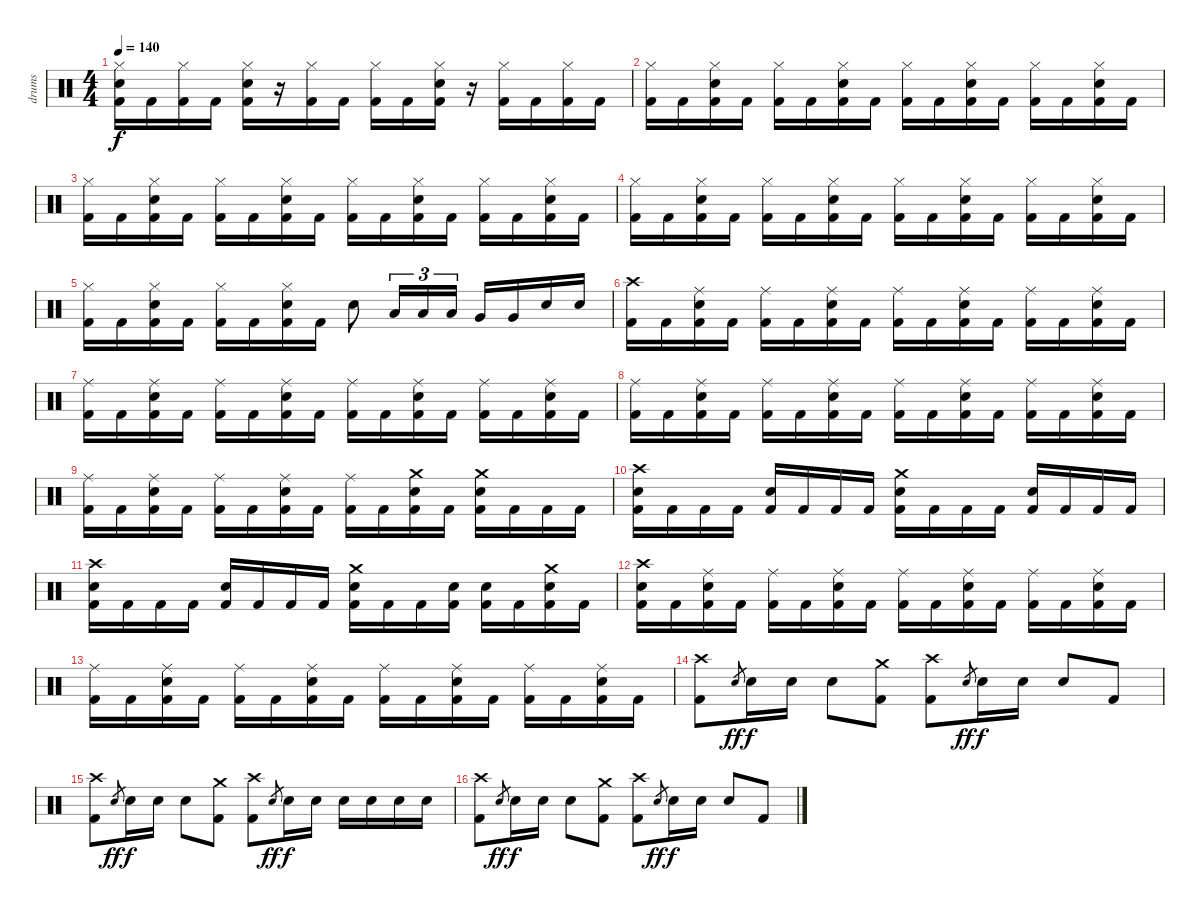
\track ("drums" "drums") {instrument percussion}
\staff {score}
\articulation defaults
\ts (4 4)
\tempo 140
\clef neutral
\ks c
("Hi-Hat (closed)" "Electric Snare (hit)" "Kick (hit) 2").16{dy f} "Kick (hit) 2".16 ("Hi-Hat (closed)" "Kick (hit) 2").16 "Kick (hit) 2".16 ("Hi-Hat (closed)" "Electric Snare (hit)" "Kick (hit) 2").16 r.16 ("Hi-Hat (closed)" "Kick (hit) 2").16 "Kick (hit) 2".16 ("Hi-Hat (closed)" "Kick (hit) 2").16 "Kick (hit) 2".16 ("Hi-Hat (closed)" "Electric Snare (hit)" "Kick (hit) 2").16 r.16 ("Hi-Hat (closed)" "Kick (hit) 2").16 "Kick (hit) 2".16 ("Hi-Hat (closed)" "Kick (hit) 2").16 "Kick (hit) 2".16 |
("Hi-Hat (closed)" "Kick (hit) 2").16 "Kick (hit) 2".16 ("Hi-Hat (closed)" "Electric Snare (hit)" "Kick (hit) 2").16 "Kick (hit) 2".16 ("Hi-Hat (closed)" "Kick (hit) 2").16 "Kick (hit) 2".16 ("Hi-Hat (closed)" "Electric Snare (hit)" "Kick (hit) 2").16 "Kick (hit) 2".16 ("Hi-Hat (closed)" "Kick (hit) 2").16 "Kick (hit) 2".16 ("Hi-Hat (closed)" "Electric Snare (hit)" "Kick (hit) 2").16 "Kick (hit) 2".16 ("Hi-Hat (closed)" "Kick (hit) 2").16 "Kick (hit) 2".16 ("Hi-Hat (closed)" "Electric Snare (hit)" "Kick (hit) 2").16 "Kick (hit) 2".16 |
("Hi-Hat (closed)" "Kick (hit) 2").16 "Kick (hit) 2".16 ("Hi-Hat (closed)" "Electric Snare (hit)" "Kick (hit) 2").16 "Kick (hit) 2".16 ("Hi-Hat (closed)" "Kick (hit) 2").16 "Kick (hit) 2".16 ("Hi-Hat (closed)" "Electric Snare (hit)" "Kick (hit) 2").16 "Kick (hit) 2".16 ("Hi-Hat (closed)" "Kick (hit) 2").16 "Kick (hit) 2".16 ("Hi-Hat (closed)" "Electric Snare (hit)" "Kick (hit) 2").16 "Kick (hit) 2".16 ("Hi-Hat (closed)" "Kick (hit) 2").16 "Kick (hit) 2".16 ("Hi-Hat (closed)" "Electric Snare (hit)" "Kick (hit) 2").16 "Kick (hit) 2".16 |
("Hi-Hat (closed)" "Kick (hit) 2").16 "Kick (hit) 2".16 ("Hi-Hat (closed)" "Electric Snare (hit)" "Kick (hit) 2").16 "Kick (hit) 2".16 ("Hi-Hat (closed)" "Kick (hit) 2").16 "Kick (hit) 2".16 ("Hi-Hat (closed)" "Electric Snare (hit)" "Kick (hit) 2").16 "Kick (hit) 2".16 ("Hi-Hat (closed)" "Kick (hit) 2").16 "Kick (hit) 2".16 ("Hi-Hat (closed)" "Electric Snare (hit)" "Kick (hit) 2").16 "Kick (hit) 2".16 ("Hi-Hat (closed)" "Kick (hit) 2").16 "Kick (hit) 2".16 ("Hi-Hat (closed)" "Electric Snare (hit)" "Kick (hit) 2").16 "Kick (hit) 2".16 |
("Hi-Hat (closed)" "Kick (hit) 2").16 "Kick (hit) 2".16 ("Hi-Hat (closed)" "Electric Snare (hit)" "Kick (hit) 2").16 "Kick (hit) 2".16 ("Hi-Hat (closed)" "Kick (hit) 2").16 "Kick (hit) 2".16 ("Hi-Hat (closed)" "Electric Snare (hit)" "Kick (hit) 2").16 "Kick (hit) 2".16 "Electric Snare (hit)".8 "Low Tom (hit)".16{tu (3 2)} "Low Tom (hit)".16{tu (3 2)} "Low Tom (hit)".16{tu (3 2)} "Very Low Tom (hit)".16 "Very Low Tom (hit)".16 "Electric Snare (hit)".16 "Electric Snare (hit)".16 |
("Crash high (hit)" "Kick (hit) 2").16 "Kick (hit) 2".16 ("Ride (middle)" "Electric Snare (hit)" "Kick (hit) 2").16 "Kick (hit) 2".16 ("Ride (middle)" "Kick (hit) 2").16 "Kick (hit) 2".16 ("Ride (middle)" "Electric Snare (hit)" "Kick (hit) 2").16 "Kick (hit) 2".16 ("Ride (middle)" "Kick (hit) 2").16 "Kick (hit) 2".16 ("Ride (middle)" "Electric Snare (hit)" "Kick (hit) 2").16 "Kick (hit) 2".16 ("Ride (middle)" "Kick (hit) 2").16 "Kick (hit) 2".16 ("Ride (middle)" "Electric Snare (hit)" "Kick (hit) 2").16 "Kick (hit) 2".16 |
("Ride (middle)" "Kick (hit) 2").16 "Kick (hit) 2".16 ("Ride (middle)" "Electric Snare (hit)" "Kick (hit) 2").16 "Kick (hit) 2".16 ("Ride (middle)" "Kick (hit) 2").16 "Kick (hit) 2".16 ("Ride (middle)" "Electric Snare (hit)" "Kick (hit) 2").16 "Kick (hit) 2".16 ("Ride (middle)" "Kick (hit) 2").16 "Kick (hit) 2".16 ("Ride (middle)" "Electric Snare (hit)" "Kick (hit) 2").16 "Kick (hit) 2".16 ("Ride (middle)" "Kick (hit) 2").16 "Kick (hit) 2".16 ("Ride (middle)" "Electric Snare (hit)" "Kick (hit) 2").16 "Kick (hit) 2".16 |
("Ride (middle)" "Kick (hit) 2").16 "Kick (hit) 2".16 ("Ride (middle)" "Electric Snare (hit)" "Kick (hit) 2").16 "Kick (hit) 2".16 ("Ride (middle)" "Kick (hit) 2").16 "Kick (hit) 2".16 ("Ride (middle)" "Electric Snare (hit)" "Kick (hit) 2").16 "Kick (hit) 2".16 ("Ride (middle)" "Kick (hit) 2").16 "Kick (hit) 2".16 ("Ride (middle)" "Electric Snare (hit)" "Kick (hit) 2").16 "Kick (hit) 2".16 ("Ride (middle)" "Kick (hit) 2").16 "Kick (hit) 2".16 ("Ride (middle)" "Electric Snare (hit)" "Kick (hit) 2").16 "Kick (hit) 2".16 |
("Ride (middle)" "Kick (hit) 2").16 "Kick (hit) 2".16 ("Ride (middle)" "Electric Snare (hit)" "Kick (hit) 2").16 "Kick (hit) 2".16 ("Ride (middle)" "Kick (hit) 2").16 "Kick (hit) 2".16 ("Ride (middle)" "Electric Snare (hit)" "Kick (hit) 2").16 "Kick (hit) 2".16 ("Ride (middle)" "Kick (hit) 2").16 "Kick (hit) 2".16 ("Crash medium (hit)" "Electric Snare (hit)" "Kick (hit) 2").16 "Kick (hit) 2".16 ("Crash medium (hit)" "Electric Snare (hit)" "Kick (hit) 2").16 "Kick (hit) 2".16 "Kick (hit) 2".16 "Kick (hit) 2".16 |
("Crash high (hit)" "Electric Snare (hit)" "Kick (hit) 2").16 "Kick (hit) 2".16 "Kick (hit) 2".16 "Kick (hit) 2".16 ("Electric Snare (hit)" "Kick (hit) 2").16 "Kick (hit) 2".16 "Kick (hit) 2".16 "Kick (hit) 2".16 ("Crash medium (hit)" "Electric Snare (hit)" "Kick (hit) 2").16 "Kick (hit) 2".16 "Kick (hit) 2".16 "Kick (hit) 2".16 ("Electric Snare (hit)" "Kick (hit) 2").16 "Kick (hit) 2".16 "Kick (hit) 2".16 "Kick (hit) 2".16 |
("Crash high (hit)" "Electric Snare (hit)" "Kick (hit) 2").16 "Kick (hit) 2".16 "Kick (hit) 2".16 "Kick (hit) 2".16 ("Electric Snare (hit)" "Kick (hit) 2").16 "Kick (hit) 2".16 "Kick (hit) 2".16 "Kick (hit) 2".16 ("Crash medium (hit)" "Electric Snare (hit)" "Kick (hit) 2").16 "Kick (hit) 2".16 "Kick (hit) 2".16 ("Electric Snare (hit)" "Kick (hit) 2").16 ("Electric Snare (hit)" "Kick (hit) 2").16 "Kick (hit) 2".16 ("Crash medium (hit)" "Electric Snare (hit)" "Kick (hit) 2").16 "Kick (hit) 2".16 |
("Crash high (hit)" "Electric Snare (hit)" "Kick (hit) 2").16 "Kick (hit) 2".16 ("Ride (middle)" "Electric Snare (hit)" "Kick (hit) 2").16 "Kick (hit) 2".16 ("Ride (middle)" "Kick (hit) 2").16 "Kick (hit) 2".16 ("Ride (middle)" "Electric Snare (hit)" "Kick (hit) 2").16 "Kick (hit) 2".16 ("Ride (middle)" "Kick (hit) 2").16 "Kick (hit) 2".16 ("Ride (middle)" "Electric Snare (hit)" "Kick (hit) 2").16 "Kick (hit) 2".16 ("Ride (middle)" "Kick (hit) 2").16 "Kick (hit) 2".16 ("Ride (middle)" "Electric Snare (hit)" "Kick (hit) 2").16 "Kick (hit) 2".16 |
("Ride (middle)" "Kick (hit) 2").16 "Kick (hit) 2".16 ("Ride (middle)" "Electric Snare (hit)" "Kick (hit) 2").16 "Kick (hit) 2".16 ("Ride (middle)" "Kick (hit) 2").16 "Kick (hit) 2".16 ("Ride (middle)" "Electric Snare (hit)" "Kick (hit) 2").16 "Kick (hit) 2".16 ("Ride (middle)" "Kick (hit) 2").16 "Kick (hit) 2".16 ("Ride (middle)" "Electric Snare (hit)" "Kick (hit) 2").16 "Kick (hit) 2".16 ("Ride (middle)" "Kick (hit) 2").16 "Kick (hit) 2".16 ("Ride (middle)" "Electric Snare (hit)" "Kick (hit) 2").16 "Kick (hit) 2".16 |
("Crash high (hit)" "Kick (hit) 2").8 "Electric Snare (hit)".8{gr dy ff} "Electric Snare (hit)".16{dy f} "Electric Snare (hit)".16 "Electric Snare (hit)".8 ("Crash medium (hit)" "Kick (hit) 2").8 ("Crash high (hit)" "Kick (hit) 2").8 "Electric Snare (hit)".8{gr dy ff} "Electric Snare (hit)".16{dy f} "Electric Snare (hit)".16 "Electric Snare (hit)".8 "Kick (hit) 2".8 |
("Crash high (hit)" "Kick (hit) 2").8 "Electric Snare (hit)".8{gr dy ff} "Electric Snare (hit)".16{dy f} "Electric Snare (hit)".16 "Electric Snare (hit)".8 ("Crash medium (hit)" "Kick (hit) 2").8 ("Crash high (hit)" "Kick (hit) 2").8 "Electric Snare (hit)".8{gr dy ff} "Electric Snare (hit)".16{dy f} "Electric Snare (hit)".16 "Electric Snare (hit)".16 "Electric Snare (hit)".16 "Electric Snare (hit)".16 "Electric Snare (hit)".16 |
("Crash high (hit)" "Kick (hit) 2").8 "Electric Snare (hit)".8{gr dy ff} "Electric Snare (hit)".16{dy f} "Electric Snare (hit)".16 "Electric Snare (hit)".8 ("Crash medium (hit)" "Kick (hit) 2").8 ("Crash high (hit)" "Kick (hit) 2").8 "Electric Snare (hit)".8{gr dy ff} "Electric Snare (hit)".16{dy f} "Electric Snare (hit)".16 "Electric Snare (hit)".8 "Kick (hit) 2".8
